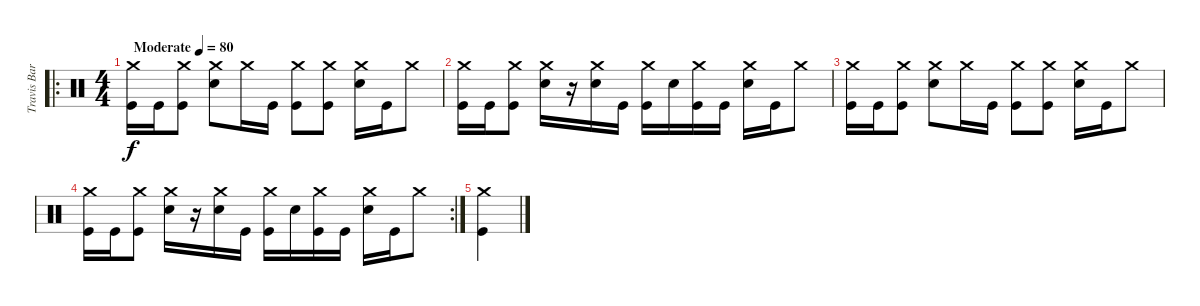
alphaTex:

\track ("Travis Barker- Drums" "Travis Bar") {instrument percussion}
\staff {score}
\articulation defaults
\ro
\ts (4 4)
\tempo (80 "Moderate")
\clef neutral
\ks c
("Crash medium (hit)" "Kick (hit)").16{dy f} "Kick (hit)".16 ("Crash medium (hit)" "Kick (hit)").8 ("Crash medium (hit)" "Electric Snare (hit)").8 "Crash medium (hit)".16 "Kick (hit)".16 ("Crash medium (hit)" "Kick (hit)").8 ("Crash medium (hit)" "Kick (hit)").8 ("Crash medium (hit)" "Electric Snare (hit)").16 "Kick (hit)".16 "Crash medium (hit)".8 |
("Crash medium (hit)" "Kick (hit)").16 "Kick (hit)".16 ("Crash medium (hit)" "Kick (hit)").8 ("Crash medium (hit)" "Electric Snare (hit)").16 r.16 ("Crash medium (hit)" "Electric Snare (hit)").16 "Kick (hit)".16 ("Crash medium (hit)" "Kick (hit)").16 "Electric Snare (hit)".16 ("Crash medium (hit)" "Kick (hit)").16 "Kick (hit)".16 ("Crash medium (hit)" "Electric Snare (hit)").16 "Kick (hit)".16 "Crash medium (hit)".8 |
("Crash medium (hit)" "Kick (hit)").16 "Kick (hit)".16 ("Crash medium (hit)" "Kick (hit)").8 ("Crash medium (hit)" "Electric Snare (hit)").8 "Crash medium (hit)".16 "Kick (hit)".16 ("Crash medium (hit)" "Kick (hit)").8 ("Crash medium (hit)" "Kick (hit)").8 ("Crash medium (hit)" "Electric Snare (hit)").16 "Kick (hit)".16 "Crash medium (hit)".8 |
\rc 2
("Crash medium (hit)" "Kick (hit)").16 "Kick (hit)".16 ("Crash medium (hit)" "Kick (hit)").8 ("Crash medium (hit)" "Electric Snare (hit)").16 r.16 ("Crash medium (hit)" "Electric Snare (hit)").16 "Kick (hit)".16 ("Crash medium (hit)" "Kick (hit)").16 "Electric Snare (hit)".16 ("Crash medium (hit)" "Kick (hit)").16 "Kick (hit)".16 ("Crash medium (hit)" "Electric Snare (hit)").16 "Kick (hit)".16 "Crash medium (hit)".8 |
("Crash medium (hit)" "Kick (hit)").4
